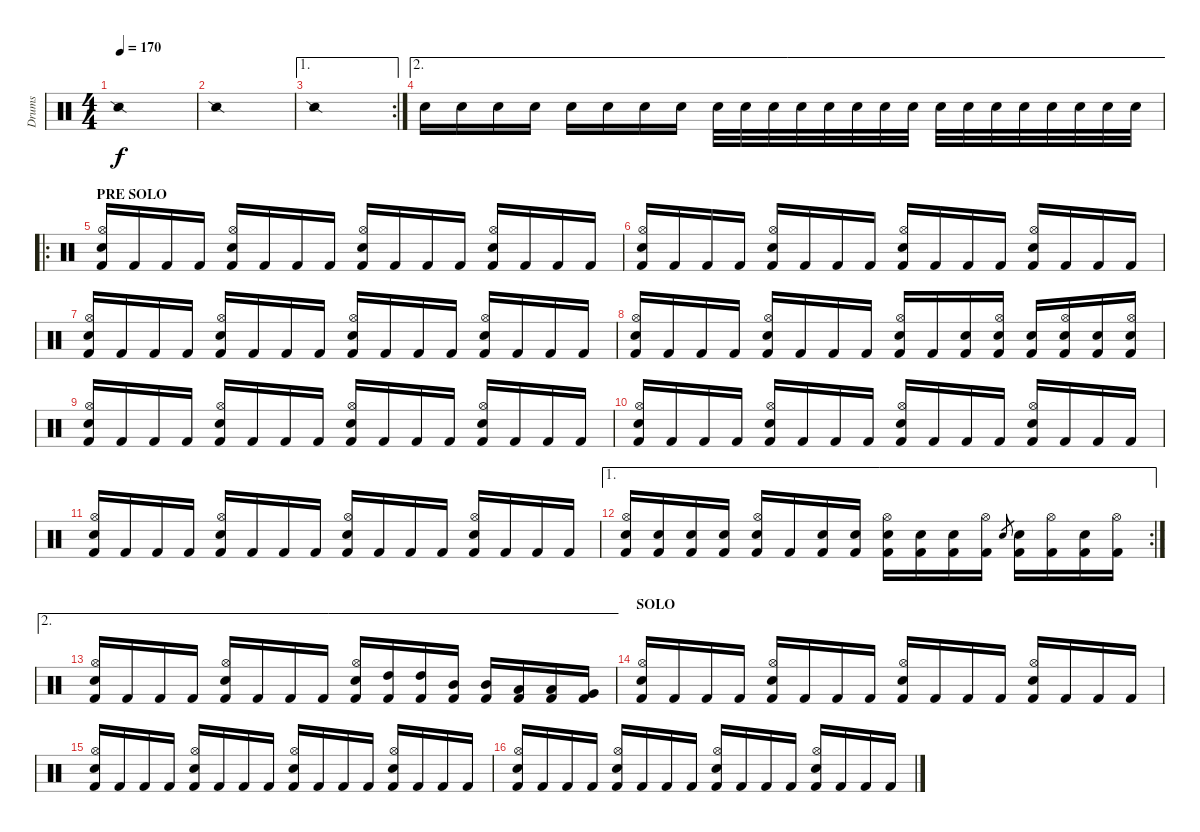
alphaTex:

\track ("Drums" "Drums") {instrument percussion}
\staff {score}
\articulation defaults
\ts (4 4)
\tempo 170
\clef neutral
\ks c "Snare (side stick) 2".1{dy f}
|
"Snare (side stick) 2".1 |
\ae 1
\rc 2 "Snare (side stick) 2".1
|
\ae 2 "Electric Snare (hit)".16 "Electric Snare (hit)".16 "Electric Snare (hit)".16 "Electric Snare (hit)".16 "Electric Snare (hit)".16 "Electric Snare (hit)".16 "Electric Snare (hit)".16 "Electric Snare (hit)".16 "Electric Snare (hit)".32 "Electric Snare (hit)".32 "Electric Snare (hit)".32 "Electric Snare (hit)".32 "Electric Snare (hit)".32 "Electric Snare (hit)".32 "Electric Snare (hit)".32 "Electric Snare (hit)".32 "Electric Snare (hit)".32 "Electric Snare (hit)".32 "Electric Snare (hit)".32 "Electric Snare (hit)".32 "Electric Snare (hit)".32 "Electric Snare (hit)".32 "Electric Snare (hit)".32 "Electric Snare (hit)".32
|
\ro
\section ("" "PRE SOLO")
("Hi-Hat (open)" "Electric Snare (hit)" "Kick (hit) 2").16 "Kick (hit) 2".16 "Kick (hit) 2".16 "Kick (hit) 2".16 ("Hi-Hat (open)" "Electric Snare (hit)" "Kick (hit) 2").16 "Kick (hit) 2".16 "Kick (hit) 2".16 "Kick (hit) 2".16 ("Hi-Hat (open)" "Electric Snare (hit)" "Kick (hit) 2").16 "Kick (hit) 2".16 "Kick (hit) 2".16 "Kick (hit) 2".16 ("Hi-Hat (open)" "Electric Snare (hit)" "Kick (hit) 2").16 "Kick (hit) 2".16 "Kick (hit) 2".16 "Kick (hit) 2".16 |
("Hi-Hat (open)" "Electric Snare (hit)" "Kick (hit) 2").16 "Kick (hit) 2".16 "Kick (hit) 2".16 "Kick (hit) 2".16 ("Hi-Hat (open)" "Electric Snare (hit)" "Kick (hit) 2").16 "Kick (hit) 2".16 "Kick (hit) 2".16 "Kick (hit) 2".16 ("Hi-Hat (open)" "Electric Snare (hit)" "Kick (hit) 2").16 "Kick (hit) 2".16 "Kick (hit) 2".16 "Kick (hit) 2".16 ("Hi-Hat (open)" "Electric Snare (hit)" "Kick (hit) 2").16 "Kick (hit) 2".16 "Kick (hit) 2".16 "Kick (hit) 2".16 |
("Hi-Hat (open)" "Electric Snare (hit)" "Kick (hit) 2").16 "Kick (hit) 2".16 "Kick (hit) 2".16 "Kick (hit) 2".16 ("Hi-Hat (open)" "Electric Snare (hit)" "Kick (hit) 2").16 "Kick (hit) 2".16 "Kick (hit) 2".16 "Kick (hit) 2".16 ("Hi-Hat (open)" "Electric Snare (hit)" "Kick (hit) 2").16 "Kick (hit) 2".16 "Kick (hit) 2".16 "Kick (hit) 2".16 ("Hi-Hat (open)" "Electric Snare (hit)" "Kick (hit) 2").16 "Kick (hit) 2".16 "Kick (hit) 2".16 "Kick (hit) 2".16 |
("Hi-Hat (open)" "Electric Snare (hit)" "Kick (hit) 2").16 "Kick (hit) 2".16 "Kick (hit) 2".16 "Kick (hit) 2".16 ("Hi-Hat (open)" "Electric Snare (hit)" "Kick (hit) 2").16 "Kick (hit) 2".16 "Kick (hit) 2".16 "Kick (hit) 2".16 ("Hi-Hat (open)" "Electric Snare (hit)" "Kick (hit) 2").16 "Kick (hit) 2".16 ("Electric Snare (hit)" "Kick (hit) 2").16 ("Hi-Hat (open)" "Electric Snare (hit)" "Kick (hit) 2").16 ("Electric Snare (hit)" "Kick (hit) 2").16 ("Hi-Hat (open)" "Electric Snare (hit)" "Kick (hit) 2").16 ("Electric Snare (hit)" "Kick (hit) 2").16 ("Hi-Hat (open)" "Electric Snare (hit)" "Kick (hit) 2").16 |
("Hi-Hat (open)" "Electric Snare (hit)" "Kick (hit) 2").16 "Kick (hit) 2".16 "Kick (hit) 2".16 "Kick (hit) 2".16 ("Hi-Hat (open)" "Electric Snare (hit)" "Kick (hit) 2").16 "Kick (hit) 2".16 "Kick (hit) 2".16 "Kick (hit) 2".16 ("Hi-Hat (open)" "Electric Snare (hit)" "Kick (hit) 2").16 "Kick (hit) 2".16 "Kick (hit) 2".16 "Kick (hit) 2".16 ("Hi-Hat (open)" "Electric Snare (hit)" "Kick (hit) 2").16 "Kick (hit) 2".16 "Kick (hit) 2".16 "Kick (hit) 2".16 |
("Hi-Hat (open)" "Electric Snare (hit)" "Kick (hit) 2").16 "Kick (hit) 2".16 "Kick (hit) 2".16 "Kick (hit) 2".16 ("Hi-Hat (open)" "Electric Snare (hit)" "Kick (hit) 2").16 "Kick (hit) 2".16 "Kick (hit) 2".16 "Kick (hit) 2".16 ("Hi-Hat (open)" "Electric Snare (hit)" "Kick (hit) 2").16 "Kick (hit) 2".16 "Kick (hit) 2".16 "Kick (hit) 2".16 ("Hi-Hat (open)" "Electric Snare (hit)" "Kick (hit) 2").16 "Kick (hit) 2".16 "Kick (hit) 2".16 "Kick (hit) 2".16 |
("Hi-Hat (open)" "Electric Snare (hit)" "Kick (hit) 2").16 "Kick (hit) 2".16 "Kick (hit) 2".16 "Kick (hit) 2".16 ("Hi-Hat (open)" "Electric Snare (hit)" "Kick (hit) 2").16 "Kick (hit) 2".16 "Kick (hit) 2".16 "Kick (hit) 2".16 ("Hi-Hat (open)" "Electric Snare (hit)" "Kick (hit) 2").16 "Kick (hit) 2".16 "Kick (hit) 2".16 "Kick (hit) 2".16 ("Hi-Hat (open)" "Electric Snare (hit)" "Kick (hit) 2").16 "Kick (hit) 2".16 "Kick (hit) 2".16 "Kick (hit) 2".16 |
\ae 1
\rc 2
("Hi-Hat (open)" "Electric Snare (hit)" "Kick (hit) 2").16 ("Electric Snare (hit)" "Kick (hit) 2").16 ("Electric Snare (hit)" "Kick (hit) 2").16 ("Electric Snare (hit)" "Kick (hit) 2").16 ("Hi-Hat (open)" "Electric Snare (hit)" "Kick (hit) 2").16 "Kick (hit) 2".16 ("Electric Snare (hit)" "Kick (hit) 2").16 ("Electric Snare (hit)" "Kick (hit) 2").16 ("Hi-Hat (open)" "Electric Snare (hit)" "Kick (hit) 2").16 ("Electric Snare (hit)" "Kick (hit) 2").16 ("Electric Snare (hit)" "Kick (hit) 2").16 ("Hi-Hat (open)" "Kick (hit) 2").16 "Electric Snare (hit)".8{gr} ("Electric Snare (hit)" "Kick (hit) 2").16 ("Hi-Hat (open)" "Kick (hit) 2").16 ("Electric Snare (hit)" "Kick (hit) 2").16 ("Hi-Hat (open)" "Kick (hit) 2").16 |
\ae 2
("Hi-Hat (open)" "Electric Snare (hit)" "Kick (hit) 2").16 "Kick (hit) 2".16 "Kick (hit) 2".16 "Kick (hit) 2".16 ("Hi-Hat (open)" "Electric Snare (hit)" "Kick (hit) 2").16 "Kick (hit) 2".16 "Kick (hit) 2".16 "Kick (hit) 2".16 ("Hi-Hat (open)" "Electric Snare (hit)" "Kick (hit) 2").16 ("High Tom (hit)" "Kick (hit) 2").16 ("High Tom (hit)" "Kick (hit) 2").16 ("Mid Tom (hit)" "Kick (hit) 2").16 ("Mid Tom (hit)" "Kick (hit) 2").16 ("Low Tom (hit)" "Kick (hit) 2").16 ("Low Tom (hit)" "Kick (hit) 2").16 ("Very Low Tom (hit)" "Kick (hit) 2").16 |
\section ("" "SOLO")
("Hi-Hat (open)" "Electric Snare (hit)" "Kick (hit) 2").16 "Kick (hit) 2".16 "Kick (hit) 2".16 "Kick (hit) 2".16 ("Hi-Hat (open)" "Electric Snare (hit)" "Kick (hit) 2").16 "Kick (hit) 2".16 "Kick (hit) 2".16 "Kick (hit) 2".16 ("Hi-Hat (open)" "Electric Snare (hit)" "Kick (hit) 2").16 "Kick (hit) 2".16 "Kick (hit) 2".16 "Kick (hit) 2".16 ("Hi-Hat (open)" "Electric Snare (hit)" "Kick (hit) 2").16 "Kick (hit) 2".16 "Kick (hit) 2".16 "Kick (hit) 2".16 |
("Hi-Hat (open)" "Electric Snare (hit)" "Kick (hit) 2").16 "Kick (hit) 2".16 "Kick (hit) 2".16 "Kick (hit) 2".16 ("Hi-Hat (open)" "Electric Snare (hit)" "Kick (hit) 2").16 "Kick (hit) 2".16 "Kick (hit) 2".16 "Kick (hit) 2".16 ("Hi-Hat (open)" "Electric Snare (hit)" "Kick (hit) 2").16 "Kick (hit) 2".16 "Kick (hit) 2".16 "Kick (hit) 2".16 ("Hi-Hat (open)" "Electric Snare (hit)" "Kick (hit) 2").16 "Kick (hit) 2".16 "Kick (hit) 2".16 "Kick (hit) 2".16 |
("Hi-Hat (open)" "Electric Snare (hit)" "Kick (hit) 2").16 "Kick (hit) 2".16 "Kick (hit) 2".16 "Kick (hit) 2".16 ("Hi-Hat (open)" "Electric Snare (hit)" "Kick (hit) 2").16 "Kick (hit) 2".16 "Kick (hit) 2".16 "Kick (hit) 2".16 ("Hi-Hat (open)" "Electric Snare (hit)" "Kick (hit) 2").16 "Kick (hit) 2".16 "Kick (hit) 2".16 "Kick (hit) 2".16 ("Hi-Hat (open)" "Electric Snare (hit)" "Kick (hit) 2").16 "Kick (hit) 2".16 "Kick (hit) 2".16 "Kick (hit) 2".16
